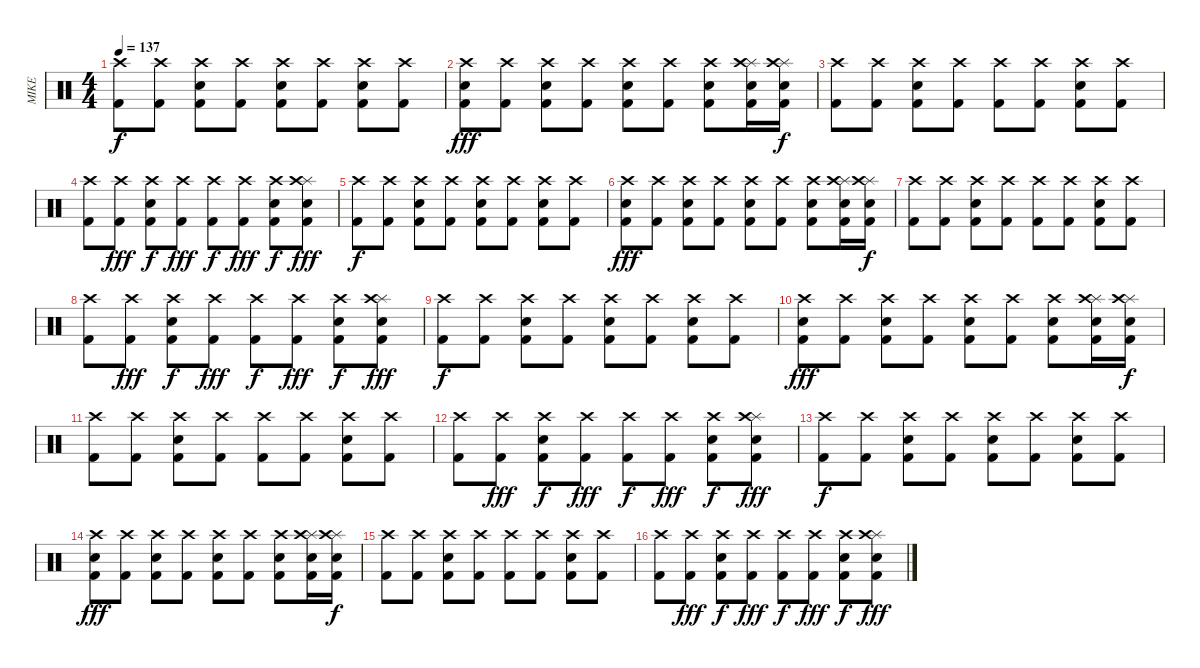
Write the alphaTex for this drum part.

\track ("MIKE" "MIKE") {instrument percussion}
\staff {score}
\articulation defaults
\ts (4 4)
\tempo 137
\clef neutral
\ks c
("Crash high (hit)" "Kick (hit) 2").8{dy f} ("Crash high (hit)" "Kick (hit) 2").8 ("Crash high (hit)" "Electric Snare (hit)" "Kick (hit) 2").8 ("Crash high (hit)" "Kick (hit) 2").8 ("Crash high (hit)" "Electric Snare (hit)" "Kick (hit) 2").8 ("Crash high (hit)" "Kick (hit) 2").8 ("Crash high (hit)" "Electric Snare (hit)" "Kick (hit) 2").8 ("Crash high (hit)" "Kick (hit) 2").8 |
("Crash high (hit)" "Electric Snare (hit)" "Kick (hit) 2").8{dy fff} ("Crash high (hit)" "Kick (hit) 2").8 ("Crash high (hit)" "Electric Snare (hit)" "Kick (hit) 2").8 ("Crash high (hit)" "Kick (hit) 2").8 ("Crash high (hit)" "Electric Snare (hit)" "Kick (hit) 2").8 ("Crash high (hit)" "Kick (hit) 2").8 ("Crash high (hit)" "Electric Snare (hit)" "Kick (hit) 2").8 ("Splash (hit)" "Crash high (hit)" "Electric Snare (hit)" "Kick (hit) 2").16 ("Splash (hit)" "Crash high (hit)" "Electric Snare (hit)" "Kick (hit) 2").16{dy f} |
("Crash high (hit)" "Kick (hit) 2").8 ("Crash high (hit)" "Kick (hit) 2").8 ("Crash high (hit)" "Electric Snare (hit)" "Kick (hit) 2").8 ("Crash high (hit)" "Kick (hit) 2").8 ("Crash high (hit)" "Kick (hit) 2").8 ("Crash high (hit)" "Kick (hit) 2").8 ("Crash high (hit)" "Electric Snare (hit)" "Kick (hit) 2").8 ("Crash high (hit)" "Kick (hit) 2").8 |
("Crash high (hit)" "Kick (hit) 2").8 ("Crash high (hit)" "Kick (hit) 2").8{dy fff} ("Crash high (hit)" "Electric Snare (hit)" "Kick (hit) 2").8{dy f} ("Crash high (hit)" "Kick (hit) 2").8{dy fff} ("Crash high (hit)" "Kick (hit) 2").8{dy f} ("Crash high (hit)" "Kick (hit) 2").8{dy fff} ("Crash high (hit)" "Electric Snare (hit)" "Kick (hit) 2").8{dy f} ("Splash (hit)" "Crash high (hit)" "Electric Snare (hit)" "Kick (hit) 2").8{dy fff} |
("Crash high (hit)" "Kick (hit) 2").8{dy f} ("Crash high (hit)" "Kick (hit) 2").8 ("Crash high (hit)" "Electric Snare (hit)" "Kick (hit) 2").8 ("Crash high (hit)" "Kick (hit) 2").8 ("Crash high (hit)" "Electric Snare (hit)" "Kick (hit) 2").8 ("Crash high (hit)" "Kick (hit) 2").8 ("Crash high (hit)" "Electric Snare (hit)" "Kick (hit) 2").8 ("Crash high (hit)" "Kick (hit) 2").8 |
("Crash high (hit)" "Electric Snare (hit)" "Kick (hit) 2").8{dy fff} ("Crash high (hit)" "Kick (hit) 2").8 ("Crash high (hit)" "Electric Snare (hit)" "Kick (hit) 2").8 ("Crash high (hit)" "Kick (hit) 2").8 ("Crash high (hit)" "Electric Snare (hit)" "Kick (hit) 2").8 ("Crash high (hit)" "Kick (hit) 2").8 ("Crash high (hit)" "Electric Snare (hit)" "Kick (hit) 2").8 ("Splash (hit)" "Crash high (hit)" "Electric Snare (hit)" "Kick (hit) 2").16 ("Splash (hit)" "Crash high (hit)" "Electric Snare (hit)" "Kick (hit) 2").16{dy f} |
("Crash high (hit)" "Kick (hit) 2").8 ("Crash high (hit)" "Kick (hit) 2").8 ("Crash high (hit)" "Electric Snare (hit)" "Kick (hit) 2").8 ("Crash high (hit)" "Kick (hit) 2").8 ("Crash high (hit)" "Kick (hit) 2").8 ("Crash high (hit)" "Kick (hit) 2").8 ("Crash high (hit)" "Electric Snare (hit)" "Kick (hit) 2").8 ("Crash high (hit)" "Kick (hit) 2").8 |
("Crash high (hit)" "Kick (hit) 2").8 ("Crash high (hit)" "Kick (hit) 2").8{dy fff} ("Crash high (hit)" "Electric Snare (hit)" "Kick (hit) 2").8{dy f} ("Crash high (hit)" "Kick (hit) 2").8{dy fff} ("Crash high (hit)" "Kick (hit) 2").8{dy f} ("Crash high (hit)" "Kick (hit) 2").8{dy fff} ("Crash high (hit)" "Electric Snare (hit)" "Kick (hit) 2").8{dy f} ("Splash (hit)" "Crash high (hit)" "Electric Snare (hit)" "Kick (hit) 2").8{dy fff} |
("Crash high (hit)" "Kick (hit) 2").8{dy f} ("Crash high (hit)" "Kick (hit) 2").8 ("Crash high (hit)" "Electric Snare (hit)" "Kick (hit) 2").8 ("Crash high (hit)" "Kick (hit) 2").8 ("Crash high (hit)" "Electric Snare (hit)" "Kick (hit) 2").8 ("Crash high (hit)" "Kick (hit) 2").8 ("Crash high (hit)" "Electric Snare (hit)" "Kick (hit) 2").8 ("Crash high (hit)" "Kick (hit) 2").8 |
("Crash high (hit)" "Electric Snare (hit)" "Kick (hit) 2").8{dy fff} ("Crash high (hit)" "Kick (hit) 2").8 ("Crash high (hit)" "Electric Snare (hit)" "Kick (hit) 2").8 ("Crash high (hit)" "Kick (hit) 2").8 ("Crash high (hit)" "Electric Snare (hit)" "Kick (hit) 2").8 ("Crash high (hit)" "Kick (hit) 2").8 ("Crash high (hit)" "Electric Snare (hit)" "Kick (hit) 2").8 ("Splash (hit)" "Crash high (hit)" "Electric Snare (hit)" "Kick (hit) 2").16 ("Splash (hit)" "Crash high (hit)" "Electric Snare (hit)" "Kick (hit) 2").16{dy f} |
("Crash high (hit)" "Kick (hit) 2").8 ("Crash high (hit)" "Kick (hit) 2").8 ("Crash high (hit)" "Electric Snare (hit)" "Kick (hit) 2").8 ("Crash high (hit)" "Kick (hit) 2").8 ("Crash high (hit)" "Kick (hit) 2").8 ("Crash high (hit)" "Kick (hit) 2").8 ("Crash high (hit)" "Electric Snare (hit)" "Kick (hit) 2").8 ("Crash high (hit)" "Kick (hit) 2").8 |
("Crash high (hit)" "Kick (hit) 2").8 ("Crash high (hit)" "Kick (hit) 2").8{dy fff} ("Crash high (hit)" "Electric Snare (hit)" "Kick (hit) 2").8{dy f} ("Crash high (hit)" "Kick (hit) 2").8{dy fff} ("Crash high (hit)" "Kick (hit) 2").8{dy f} ("Crash high (hit)" "Kick (hit) 2").8{dy fff} ("Crash high (hit)" "Electric Snare (hit)" "Kick (hit) 2").8{dy f} ("Splash (hit)" "Crash high (hit)" "Electric Snare (hit)" "Kick (hit) 2").8{dy fff} |
("Crash high (hit)" "Kick (hit) 2").8{dy f} ("Crash high (hit)" "Kick (hit) 2").8 ("Crash high (hit)" "Electric Snare (hit)" "Kick (hit) 2").8 ("Crash high (hit)" "Kick (hit) 2").8 ("Crash high (hit)" "Electric Snare (hit)" "Kick (hit) 2").8 ("Crash high (hit)" "Kick (hit) 2").8 ("Crash high (hit)" "Electric Snare (hit)" "Kick (hit) 2").8 ("Crash high (hit)" "Kick (hit) 2").8 |
("Crash high (hit)" "Electric Snare (hit)" "Kick (hit) 2").8{dy fff} ("Crash high (hit)" "Kick (hit) 2").8 ("Crash high (hit)" "Electric Snare (hit)" "Kick (hit) 2").8 ("Crash high (hit)" "Kick (hit) 2").8 ("Crash high (hit)" "Electric Snare (hit)" "Kick (hit) 2").8 ("Crash high (hit)" "Kick (hit) 2").8 ("Crash high (hit)" "Electric Snare (hit)" "Kick (hit) 2").8 ("Splash (hit)" "Crash high (hit)" "Electric Snare (hit)" "Kick (hit) 2").16 ("Splash (hit)" "Crash high (hit)" "Electric Snare (hit)" "Kick (hit) 2").16{dy f} |
("Crash high (hit)" "Kick (hit) 2").8 ("Crash high (hit)" "Kick (hit) 2").8 ("Crash high (hit)" "Electric Snare (hit)" "Kick (hit) 2").8 ("Crash high (hit)" "Kick (hit) 2").8 ("Crash high (hit)" "Kick (hit) 2").8 ("Crash high (hit)" "Kick (hit) 2").8 ("Crash high (hit)" "Electric Snare (hit)" "Kick (hit) 2").8 ("Crash high (hit)" "Kick (hit) 2").8 |
("Crash high (hit)" "Kick (hit) 2").8 ("Crash high (hit)" "Kick (hit) 2").8{dy fff} ("Crash high (hit)" "Electric Snare (hit)" "Kick (hit) 2").8{dy f} ("Crash high (hit)" "Kick (hit) 2").8{dy fff} ("Crash high (hit)" "Kick (hit) 2").8{dy f} ("Crash high (hit)" "Kick (hit) 2").8{dy fff} ("Crash high (hit)" "Electric Snare (hit)" "Kick (hit) 2").8{dy f} ("Splash (hit)" "Crash high (hit)" "Electric Snare (hit)" "Kick (hit) 2").8{dy fff}
